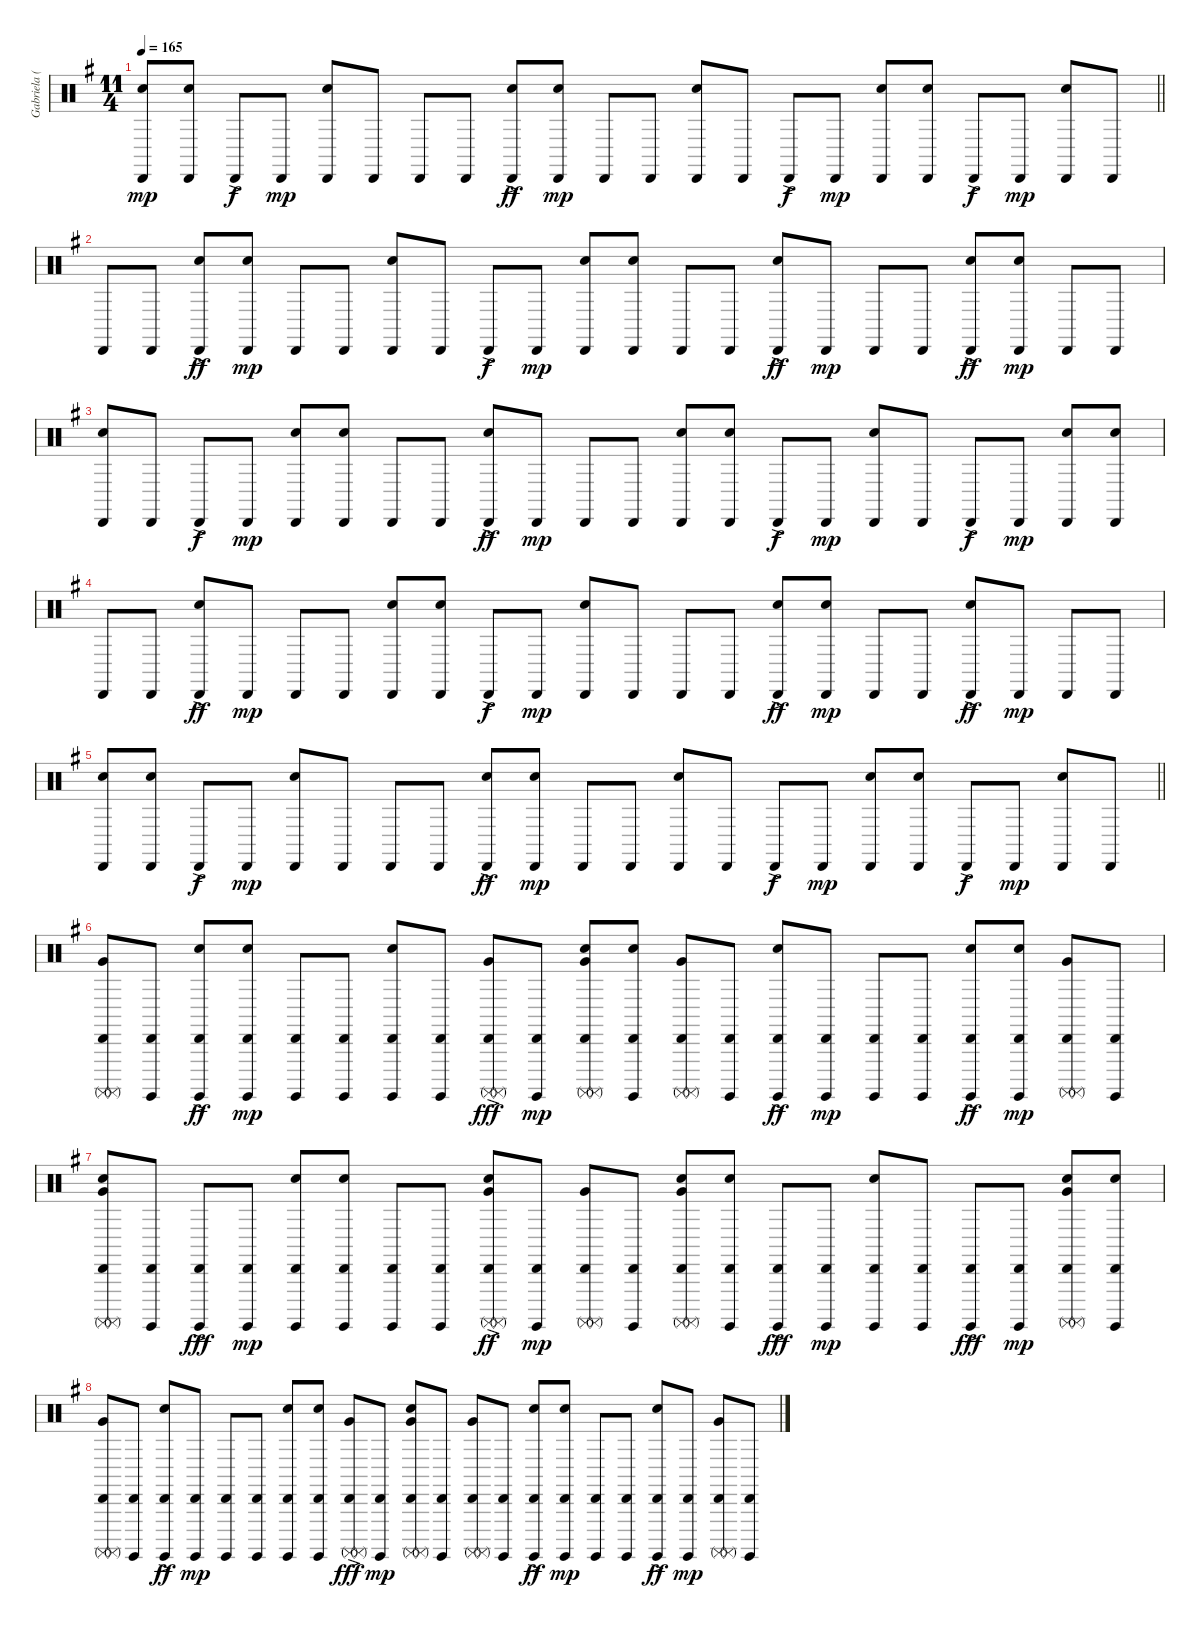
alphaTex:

\track ("Gabriela (Guitar Percussion)" "Gabriela (") {instrument percussion}
\staff {score}
\articulation defaults
\ts (11 4)
\tempo 165
\clef neutral
\barLineRight lightlight
\ks g
("Hand Clap (hit)" "Cabasa (hit)").8{dy mp} ("Hand Clap (hit)" "Cabasa (hit)").8 "Cabasa (hit)"{ac}.8{dy f} "Cabasa (hit)".8{dy mp} ("Hand Clap (hit)" "Cabasa (hit)").8 "Cabasa (hit)".8 "Cabasa (hit)".8 "Cabasa (hit)".8 ("Hand Clap (hit)" "Cabasa (hit)"{ac}).8{dy ff} ("Hand Clap (hit)" "Cabasa (hit)").8{dy mp} "Cabasa (hit)".8 "Cabasa (hit)".8 ("Hand Clap (hit)" "Cabasa (hit)").8 "Cabasa (hit)".8 "Cabasa (hit)"{ac}.8{dy f} "Cabasa (hit)".8{dy mp} ("Hand Clap (hit)" "Cabasa (hit)").8 ("Hand Clap (hit)" "Cabasa (hit)").8 "Cabasa (hit)"{ac}.8{dy f} "Cabasa (hit)".8{dy mp} ("Hand Clap (hit)" "Cabasa (hit)").8 "Cabasa (hit)".8 |
"Cabasa (hit)".8 "Cabasa (hit)".8 ("Hand Clap (hit)" "Cabasa (hit)"{ac}).8{dy ff} ("Hand Clap (hit)" "Cabasa (hit)").8{dy mp} "Cabasa (hit)".8 "Cabasa (hit)".8 ("Hand Clap (hit)" "Cabasa (hit)").8 "Cabasa (hit)".8 "Cabasa (hit)"{ac}.8{dy f} "Cabasa (hit)".8{dy mp} ("Hand Clap (hit)" "Cabasa (hit)").8 ("Hand Clap (hit)" "Cabasa (hit)").8 "Cabasa (hit)".8 "Cabasa (hit)".8 ("Hand Clap (hit)" "Cabasa (hit)"{ac}).8{dy ff} "Cabasa (hit)".8{dy mp} "Cabasa (hit)".8 "Cabasa (hit)".8 ("Hand Clap (hit)" "Cabasa (hit)"{ac}).8{dy ff} ("Hand Clap (hit)" "Cabasa (hit)").8{dy mp} "Cabasa (hit)".8 "Cabasa (hit)".8 |
("Hand Clap (hit)" "Cabasa (hit)").8 "Cabasa (hit)".8 "Cabasa (hit)"{ac}.8{dy f} "Cabasa (hit)".8{dy mp} ("Hand Clap (hit)" "Cabasa (hit)").8 ("Hand Clap (hit)" "Cabasa (hit)").8 "Cabasa (hit)".8 "Cabasa (hit)".8 ("Hand Clap (hit)" "Cabasa (hit)"{ac}).8{dy ff} "Cabasa (hit)".8{dy mp} "Cabasa (hit)".8 "Cabasa (hit)".8 ("Hand Clap (hit)" "Cabasa (hit)").8 ("Hand Clap (hit)" "Cabasa (hit)").8 "Cabasa (hit)"{ac}.8{dy f} "Cabasa (hit)".8{dy mp} ("Hand Clap (hit)" "Cabasa (hit)").8 "Cabasa (hit)".8 "Cabasa (hit)"{ac}.8{dy f} "Cabasa (hit)".8{dy mp} ("Hand Clap (hit)" "Cabasa (hit)").8 ("Hand Clap (hit)" "Cabasa (hit)").8 |
"Cabasa (hit)".8 "Cabasa (hit)".8 ("Hand Clap (hit)" "Cabasa (hit)"{ac}).8{dy ff} "Cabasa (hit)".8{dy mp} "Cabasa (hit)".8 "Cabasa (hit)".8 ("Hand Clap (hit)" "Cabasa (hit)").8 ("Hand Clap (hit)" "Cabasa (hit)").8 "Cabasa (hit)"{ac}.8{dy f} "Cabasa (hit)".8{dy mp} ("Hand Clap (hit)" "Cabasa (hit)").8 "Cabasa (hit)".8 "Cabasa (hit)".8 "Cabasa (hit)".8 ("Hand Clap (hit)" "Cabasa (hit)"{ac}).8{dy ff} ("Hand Clap (hit)" "Cabasa (hit)").8{dy mp} "Cabasa (hit)".8 "Cabasa (hit)".8 ("Hand Clap (hit)" "Cabasa (hit)"{ac}).8{dy ff} "Cabasa (hit)".8{dy mp} "Cabasa (hit)".8 "Cabasa (hit)".8 |
\barLineRight lightlight
("Hand Clap (hit)" "Cabasa (hit)").8 ("Hand Clap (hit)" "Cabasa (hit)").8 "Cabasa (hit)"{ac}.8{dy f} "Cabasa (hit)".8{dy mp} ("Hand Clap (hit)" "Cabasa (hit)").8 "Cabasa (hit)".8 "Cabasa (hit)".8 "Cabasa (hit)".8 ("Hand Clap (hit)" "Cabasa (hit)"{ac}).8{dy ff} ("Hand Clap (hit)" "Cabasa (hit)").8{dy mp} "Cabasa (hit)".8 "Cabasa (hit)".8 ("Hand Clap (hit)" "Cabasa (hit)").8 "Cabasa (hit)".8 "Cabasa (hit)"{ac}.8{dy f} "Cabasa (hit)".8{dy mp} ("Hand Clap (hit)" "Cabasa (hit)").8 ("Hand Clap (hit)" "Cabasa (hit)").8 "Cabasa (hit)"{ac}.8{dy f} "Cabasa (hit)".8{dy mp} ("Hand Clap (hit)" "Cabasa (hit)").8 "Cabasa (hit)".8 |
("Very Low Tom (hit)" "Surdo (mute)" "Surdo (mute)" "Cabasa (hit)").8 ("Surdo (hit)" "Cabasa (hit)").8 ("Surdo (hit)" "Hand Clap (hit)" "Cabasa (hit)"{ac}).8{dy ff} ("Surdo (hit)" "Hand Clap (hit)" "Cabasa (hit)").8{dy mp} ("Surdo (hit)" "Cabasa (hit)").8 ("Surdo (hit)" "Cabasa (hit)").8 ("Surdo (hit)" "Hand Clap (hit)" "Cabasa (hit)").8 ("Surdo (hit)" "Cabasa (hit)").8 ("Very Low Tom (hit)" "Surdo (mute)" "Surdo (mute)" "Cabasa (hit)"{ac}).8{dy fff} ("Surdo (hit)" "Cabasa (hit)").8{dy mp} ("Very Low Tom (hit)" "Surdo (mute)" "Surdo (mute)" "Hand Clap (hit)" "Cabasa (hit)").8 ("Surdo (hit)" "Hand Clap (hit)" "Cabasa (hit)").8 ("Very Low Tom (hit)" "Surdo (mute)" "Surdo (mute)" "Cabasa (hit)").8 ("Surdo (hit)" "Cabasa (hit)").8 ("Surdo (hit)" "Hand Clap (hit)" "Cabasa (hit)"{ac}).8{dy ff} ("Surdo (hit)" "Cabasa (hit)").8{dy mp} ("Surdo (hit)" "Cabasa (hit)").8 ("Surdo (hit)" "Cabasa (hit)").8 ("Surdo (hit)" "Hand Clap (hit)" "Cabasa (hit)"{ac}).8{dy ff} ("Surdo (hit)" "Hand Clap (hit)" "Cabasa (hit)").8{dy mp} ("Very Low Tom (hit)" "Surdo (mute)" "Surdo (mute)" "Cabasa (hit)").8 ("Surdo (hit)" "Cabasa (hit)").8 |
("Very Low Tom (hit)" "Surdo (mute)" "Surdo (mute)" "Hand Clap (hit)" "Cabasa (hit)").8 ("Surdo (hit)" "Cabasa (hit)").8 ("Surdo (hit)" "Cabasa (hit)"{ac}).8{dy fff} ("Surdo (hit)" "Cabasa (hit)").8{dy mp} ("Surdo (hit)" "Hand Clap (hit)" "Cabasa (hit)").8 ("Surdo (hit)" "Hand Clap (hit)" "Cabasa (hit)").8 ("Surdo (hit)" "Cabasa (hit)").8 ("Surdo (hit)" "Cabasa (hit)").8 ("Very Low Tom (hit)" "Surdo (mute)" "Surdo (mute)" "Hand Clap (hit)" "Cabasa (hit)"{ac}).8{dy ff} ("Surdo (hit)" "Cabasa (hit)").8{dy mp} ("Very Low Tom (hit)" "Surdo (mute)" "Surdo (mute)" "Cabasa (hit)").8 ("Surdo (hit)" "Cabasa (hit)").8 ("Very Low Tom (hit)" "Surdo (mute)" "Surdo (mute)" "Hand Clap (hit)" "Cabasa (hit)").8 ("Surdo (hit)" "Hand Clap (hit)" "Cabasa (hit)").8 ("Surdo (hit)" "Cabasa (hit)"{ac}).8{dy fff} ("Surdo (hit)" "Cabasa (hit)").8{dy mp} ("Surdo (hit)" "Hand Clap (hit)" "Cabasa (hit)").8 ("Surdo (hit)" "Cabasa (hit)").8 ("Surdo (hit)" "Cabasa (hit)"{ac}).8{dy fff} ("Surdo (hit)" "Cabasa (hit)").8{dy mp} ("Very Low Tom (hit)" "Surdo (mute)" "Surdo (mute)" "Hand Clap (hit)" "Cabasa (hit)").8 ("Surdo (hit)" "Hand Clap (hit)" "Cabasa (hit)").8 |
("Very Low Tom (hit)" "Surdo (mute)" "Surdo (mute)" "Cabasa (hit)").8 ("Surdo (hit)" "Cabasa (hit)").8 ("Surdo (hit)" "Hand Clap (hit)" "Cabasa (hit)"{ac}).8{dy ff} ("Surdo (hit)" "Cabasa (hit)").8{dy mp} ("Surdo (hit)" "Cabasa (hit)").8 ("Surdo (hit)" "Cabasa (hit)").8 ("Surdo (hit)" "Hand Clap (hit)" "Cabasa (hit)").8 ("Surdo (hit)" "Hand Clap (hit)" "Cabasa (hit)").8 ("Very Low Tom (hit)" "Surdo (mute)" "Surdo (mute)" "Cabasa (hit)"{ac}).8{dy fff} ("Surdo (hit)" "Cabasa (hit)").8{dy mp} ("Very Low Tom (hit)" "Surdo (mute)" "Surdo (mute)" "Hand Clap (hit)" "Cabasa (hit)").8 ("Surdo (hit)" "Cabasa (hit)").8 ("Very Low Tom (hit)" "Surdo (mute)" "Surdo (mute)" "Cabasa (hit)").8 ("Surdo (hit)" "Cabasa (hit)").8 ("Surdo (hit)" "Hand Clap (hit)" "Cabasa (hit)"{ac}).8{dy ff} ("Surdo (hit)" "Hand Clap (hit)" "Cabasa (hit)").8{dy mp} ("Surdo (hit)" "Cabasa (hit)").8 ("Surdo (hit)" "Cabasa (hit)").8 ("Surdo (hit)" "Hand Clap (hit)" "Cabasa (hit)"{ac}).8{dy ff} ("Surdo (hit)" "Cabasa (hit)").8{dy mp} ("Very Low Tom (hit)" "Surdo (mute)" "Surdo (mute)" "Cabasa (hit)").8 ("Surdo (hit)" "Cabasa (hit)").8
